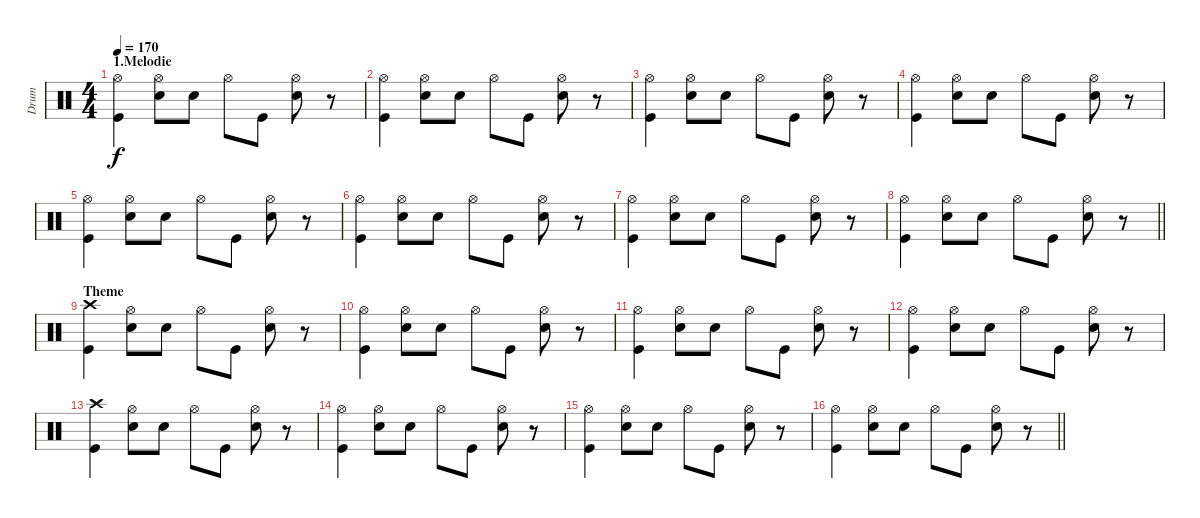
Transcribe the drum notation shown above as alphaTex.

\track ("Drum" "Drum") {instrument percussion}
\staff {score}
\articulation defaults
\ts (4 4)
\section ("" "1.Melodie")
\tempo 170
\clef neutral
\ks c
("Kick (hit)" "Hi-Hat (open)").4{dy f} ("Snare (hit) 2" "Hi-Hat (open)").8 "Snare (hit) 2".8 "Hi-Hat (open)".8 "Kick (hit)".8 ("Snare (hit) 2" "Hi-Hat (open)").8 r.8 |
("Kick (hit)" "Hi-Hat (open)").4 ("Snare (hit) 2" "Hi-Hat (open)").8 "Snare (hit) 2".8 "Hi-Hat (open)".8 "Kick (hit)".8 ("Snare (hit) 2" "Hi-Hat (open)").8 r.8 |
("Kick (hit)" "Hi-Hat (open)").4 ("Snare (hit) 2" "Hi-Hat (open)").8 "Snare (hit) 2".8 "Hi-Hat (open)".8 "Kick (hit)".8 ("Snare (hit) 2" "Hi-Hat (open)").8 r.8 |
("Kick (hit)" "Hi-Hat (open)").4 ("Snare (hit) 2" "Hi-Hat (open)").8 "Snare (hit) 2".8 "Hi-Hat (open)".8 "Kick (hit)".8 ("Snare (hit) 2" "Hi-Hat (open)").8 r.8 |
("Kick (hit)" "Hi-Hat (open)").4 ("Snare (hit) 2" "Hi-Hat (open)").8 "Snare (hit) 2".8 "Hi-Hat (open)".8 "Kick (hit)".8 ("Snare (hit) 2" "Hi-Hat (open)").8 r.8 |
("Kick (hit)" "Hi-Hat (open)").4 ("Snare (hit) 2" "Hi-Hat (open)").8 "Snare (hit) 2".8 "Hi-Hat (open)".8 "Kick (hit)".8 ("Snare (hit) 2" "Hi-Hat (open)").8 r.8 |
("Kick (hit)" "Hi-Hat (open)").4 ("Snare (hit) 2" "Hi-Hat (open)").8 "Snare (hit) 2".8 "Hi-Hat (open)".8 "Kick (hit)".8 ("Snare (hit) 2" "Hi-Hat (open)").8 r.8 |
\barLineRight lightlight
("Kick (hit)" "Hi-Hat (open)").4 ("Snare (hit) 2" "Hi-Hat (open)").8 "Snare (hit) 2".8 "Hi-Hat (open)".8 "Kick (hit)".8 ("Snare (hit) 2" "Hi-Hat (open)").8 r.8 |
\section ("" "Theme")
("Kick (hit)" "Crash high (hit)").4 ("Snare (hit) 2" "Hi-Hat (open)").8 "Snare (hit) 2".8 "Hi-Hat (open)".8 "Kick (hit)".8 ("Snare (hit) 2" "Hi-Hat (open)").8 r.8 |
("Kick (hit)" "Hi-Hat (open)").4 ("Snare (hit) 2" "Hi-Hat (open)").8 "Snare (hit) 2".8 "Hi-Hat (open)".8 "Kick (hit)".8 ("Snare (hit) 2" "Hi-Hat (open)").8 r.8 |
("Kick (hit)" "Hi-Hat (open)").4 ("Snare (hit) 2" "Hi-Hat (open)").8 "Snare (hit) 2".8 "Hi-Hat (open)".8 "Kick (hit)".8 ("Snare (hit) 2" "Hi-Hat (open)").8 r.8 |
("Kick (hit)" "Hi-Hat (open)").4 ("Snare (hit) 2" "Hi-Hat (open)").8 "Snare (hit) 2".8 "Hi-Hat (open)".8 "Kick (hit)".8 ("Snare (hit) 2" "Hi-Hat (open)").8 r.8 |
("Kick (hit)" "Crash high (hit)").4 ("Snare (hit) 2" "Hi-Hat (open)").8 "Snare (hit) 2".8 "Hi-Hat (open)".8 "Kick (hit)".8 ("Snare (hit) 2" "Hi-Hat (open)").8 r.8 |
("Kick (hit)" "Hi-Hat (open)").4 ("Snare (hit) 2" "Hi-Hat (open)").8 "Snare (hit) 2".8 "Hi-Hat (open)".8 "Kick (hit)".8 ("Snare (hit) 2" "Hi-Hat (open)").8 r.8 |
("Kick (hit)" "Hi-Hat (open)").4 ("Snare (hit) 2" "Hi-Hat (open)").8 "Snare (hit) 2".8 "Hi-Hat (open)".8 "Kick (hit)".8 ("Snare (hit) 2" "Hi-Hat (open)").8 r.8 |
\barLineRight lightlight
("Kick (hit)" "Hi-Hat (open)").4 ("Snare (hit) 2" "Hi-Hat (open)").8 "Snare (hit) 2".8 "Hi-Hat (open)".8 "Kick (hit)".8 ("Snare (hit) 2" "Hi-Hat (open)").8 r.8
